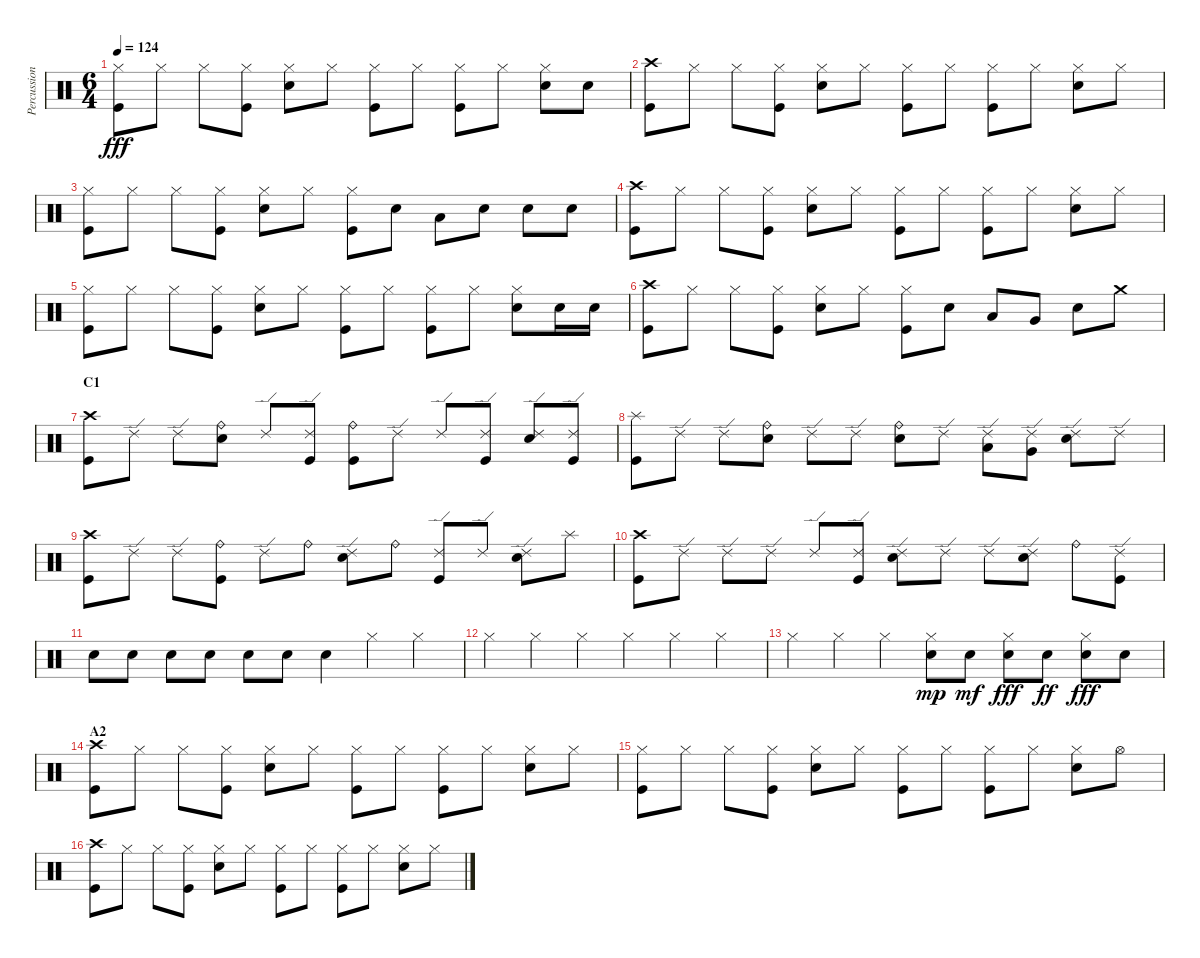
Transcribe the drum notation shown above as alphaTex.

\track ("Percussion" "Percussion") {instrument percussion}
\staff {score}
\articulation defaults
\ts (6 4)
\tempo 124
\clef neutral
\ks c
("Hi-Hat (closed)" "Kick (hit)").8{dy fff} "Hi-Hat (closed)".8 "Hi-Hat (closed)".8 ("Hi-Hat (closed)" "Kick (hit)").8 ("Hi-Hat (closed)" "Snare (hit) 2").8 "Hi-Hat (closed)".8 ("Hi-Hat (closed)" "Kick (hit)").8 "Hi-Hat (closed)".8 ("Hi-Hat (closed)" "Kick (hit)").8 "Hi-Hat (closed)".8 ("Hi-Hat (closed)" "Snare (hit) 2").8 "Snare (hit) 2".8 |
("Crash high (hit)" "Kick (hit)").8 "Hi-Hat (closed)".8 "Hi-Hat (closed)".8 ("Hi-Hat (closed)" "Kick (hit)").8 ("Hi-Hat (closed)" "Snare (hit) 2").8 "Hi-Hat (closed)".8 ("Hi-Hat (closed)" "Kick (hit)").8 "Hi-Hat (closed)".8 ("Hi-Hat (closed)" "Kick (hit)").8 "Hi-Hat (closed)".8 ("Hi-Hat (closed)" "Snare (hit) 2").8 "Hi-Hat (closed)".8 |
("Hi-Hat (closed)" "Kick (hit)").8 "Hi-Hat (closed)".8 "Hi-Hat (closed)".8 ("Hi-Hat (closed)" "Kick (hit)").8 ("Hi-Hat (closed)" "Snare (hit) 2").8 "Hi-Hat (closed)".8 ("Hi-Hat (closed)" "Kick (hit)").8 "Snare (hit) 2".8 "Low Floor Tom (hit)".8 "Snare (hit) 2".8 "Snare (hit) 2".8 "Snare (hit) 2".8 |
("Crash high (hit)" "Kick (hit)").8 "Hi-Hat (closed)".8 "Hi-Hat (closed)".8 ("Hi-Hat (closed)" "Kick (hit)").8 ("Hi-Hat (closed)" "Snare (hit) 2").8 "Hi-Hat (closed)".8 ("Hi-Hat (closed)" "Kick (hit)").8 "Hi-Hat (closed)".8 ("Hi-Hat (closed)" "Kick (hit)").8 "Hi-Hat (closed)".8 ("Hi-Hat (closed)" "Snare (hit) 2").8 "Hi-Hat (closed)".8 |
("Hi-Hat (closed)" "Kick (hit)").8 "Hi-Hat (closed)".8 "Hi-Hat (closed)".8 ("Hi-Hat (closed)" "Kick (hit)").8 ("Hi-Hat (closed)" "Snare (hit) 2").8 "Hi-Hat (closed)".8 ("Hi-Hat (closed)" "Kick (hit)").8 "Hi-Hat (closed)".8 ("Hi-Hat (closed)" "Kick (hit)").8 "Hi-Hat (closed)".8 ("Hi-Hat (closed)" "Snare (hit) 2").8 "Snare (hit) 2".16 "Snare (hit) 2".16 |
("Crash high (hit)" "Kick (hit)").8 "Hi-Hat (closed)".8 "Hi-Hat (closed)".8 ("Hi-Hat (closed)" "Kick (hit)").8 ("Hi-Hat (closed)" "Snare (hit) 2").8 "Hi-Hat (closed)".8 ("Hi-Hat (closed)" "Kick (hit)").8 "Snare (hit) 2".8 "Low Tom (hit)".8 "Very Low Tom (hit)".8 "Snare (hit) 2".8 "Crash medium (hit)".8 |
\section ("" "C1")
("Crash high (hit)" "Kick (hit)").8 "Ride (edge) 2".8 "Ride (edge) 2".8 ("Ride (bell)" "Snare (hit) 2").8 "Ride (edge) 2".8 ("Ride (edge) 2" "Kick (hit)").8 ("Ride (bell)" "Kick (hit)").8 "Ride (edge) 2".8 "Ride (edge) 2".8 ("Ride (edge) 2" "Kick (hit)").8 ("Ride (edge) 2" "Snare (hit) 2").8 ("Ride (edge) 2" "Kick (hit)").8 |
("Splash (hit)" "Kick (hit)").8 "Ride (edge) 2".8 "Ride (edge) 2".8 ("Ride (bell)" "Snare (hit) 2").8 "Ride (edge) 2".8 "Ride (edge) 2".8 ("Ride (bell)" "Snare (hit) 2").8 "Ride (edge) 2".8 ("Ride (edge) 2" "Low Tom (hit)").8 ("Ride (edge) 2" "Very Low Tom (hit)").8 ("Ride (edge) 2" "Snare (hit) 2").8 "Ride (edge) 2".8 |
("Crash high (hit)" "Kick (hit)").8 "Ride (edge) 2".8 "Ride (edge) 2".8 ("Ride (bell)" "Kick (hit)").8 "Ride (edge) 2".8 "Ride (bell)".8 ("Ride (edge) 2" "Snare (hit) 2").8 "Ride (bell)".8 ("Ride (edge) 2" "Kick (hit)").8 "Ride (edge) 2".8 ("Ride (edge) 2" "Snare (hit) 2").8 "Splash (hit)".8 |
("Crash high (hit)" "Kick (hit)").8 "Ride (edge) 2".8 "Ride (edge) 2".8 "Ride (edge) 2".8 "Ride (edge) 2".8 ("Ride (edge) 2" "Kick (hit)").8 ("Ride (edge) 2" "Snare (hit) 2").8 "Ride (edge) 2".8 "Ride (edge) 2".8 ("Ride (edge) 2" "Snare (hit) 2").8 "Ride (bell)".8 ("Ride (edge) 2" "Kick (hit)").8 |
"Snare (hit) 2".8 "Snare (hit) 2".8 "Snare (hit) 2".8 "Snare (hit) 2".8 "Snare (hit) 2".8 "Snare (hit) 2".8 "Snare (hit) 2".4 "Hi-Hat (closed)".4 "Hi-Hat (closed)".4 |
"Hi-Hat (closed)".4 "Hi-Hat (closed)".4 "Hi-Hat (closed)".4 "Hi-Hat (closed)".4 "Hi-Hat (closed)".4 "Hi-Hat (closed)".4 |
"Hi-Hat (closed)".4 "Hi-Hat (closed)".4 "Hi-Hat (closed)".4 ("Hi-Hat (closed)" "Snare (hit) 2").8{dy mp} "Snare (hit) 2".8{dy mf} ("Hi-Hat (closed)" "Snare (hit) 2").8{dy fff} "Snare (hit) 2".8{dy ff} ("Hi-Hat (closed)" "Snare (hit) 2").8{dy fff} "Snare (hit) 2".8 |
\section ("" "A2")
("Crash high (hit)" "Kick (hit)").8 "Hi-Hat (closed)".8 "Hi-Hat (closed)".8 ("Hi-Hat (closed)" "Kick (hit)").8 ("Hi-Hat (closed)" "Snare (hit) 2").8 "Hi-Hat (closed)".8 ("Hi-Hat (closed)" "Kick (hit)").8 "Hi-Hat (closed)".8 ("Hi-Hat (closed)" "Kick (hit)").8 "Hi-Hat (closed)".8 ("Hi-Hat (closed)" "Snare (hit) 2").8 "Hi-Hat (closed)".8 |
("Hi-Hat (closed)" "Kick (hit)").8 "Hi-Hat (closed)".8 "Hi-Hat (closed)".8 ("Hi-Hat (closed)" "Kick (hit)").8 ("Hi-Hat (closed)" "Snare (hit) 2").8 "Hi-Hat (closed)".8 ("Hi-Hat (closed)" "Kick (hit)").8 "Hi-Hat (closed)".8 ("Hi-Hat (closed)" "Kick (hit)").8 "Hi-Hat (closed)".8 ("Hi-Hat (closed)" "Snare (hit) 2").8 "Hi-Hat (open)".8 |
("Crash high (hit)" "Kick (hit)").8 "Hi-Hat (closed)".8 "Hi-Hat (closed)".8 ("Hi-Hat (closed)" "Kick (hit)").8 ("Hi-Hat (closed)" "Snare (hit) 2").8 "Hi-Hat (closed)".8 ("Hi-Hat (closed)" "Kick (hit)").8 "Hi-Hat (closed)".8 ("Hi-Hat (closed)" "Kick (hit)").8 "Hi-Hat (closed)".8 ("Hi-Hat (closed)" "Snare (hit) 2").8 "Hi-Hat (closed)".8
